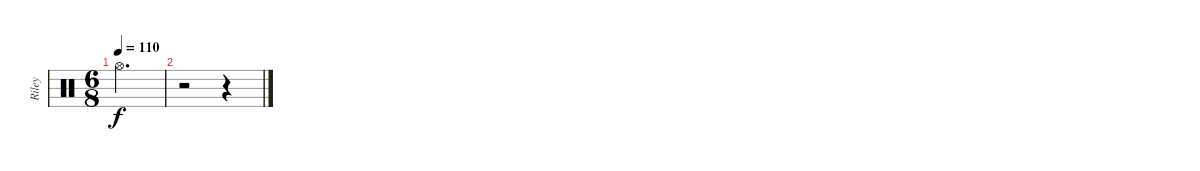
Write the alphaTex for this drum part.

\track ("Riley" "Riley") {instrument percussion}
\staff {score}
\articulation defaults
\ts (6 8)
\tempo 110
\clef neutral
\ks c "Hi-Hat (open)".2{d dy f}
|
r.2 r.4
